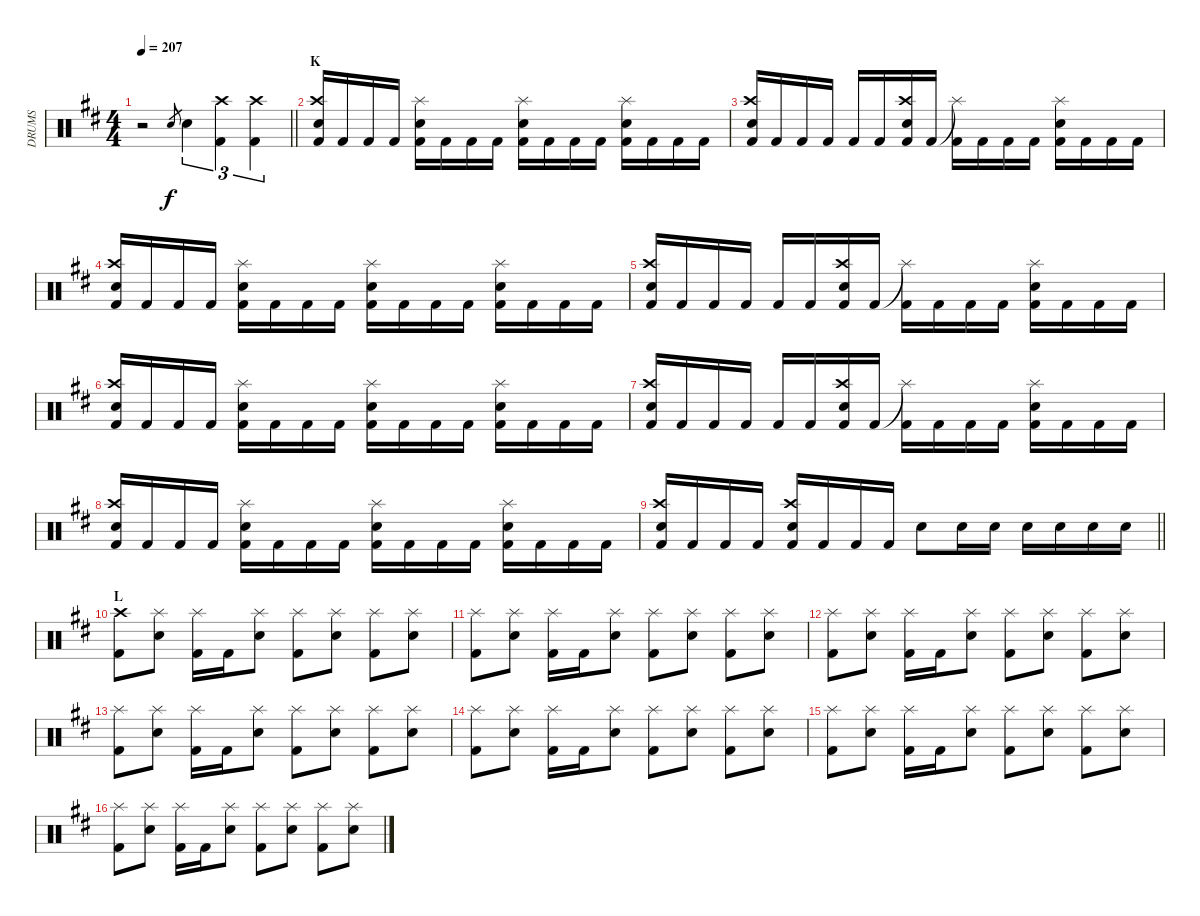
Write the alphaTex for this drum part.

\track ("DRUMS" "DRUMS") {instrument percussion}
\staff {score}
\articulation defaults
\ts (4 4)
\tempo 207
\clef neutral
\barLineRight lightlight
\ks d
r.2{dy f} "Snare (hit) 2".8{gr} "Snare (hit) 2".4{tu (3 2)} ("Crash high (hit)" "Kick (hit) 2").4{tu (3 2)} ("Crash high (hit)" "Kick (hit) 2").4{tu (3 2)} |
\section ("" "K")
("Crash high (hit)" "Snare (hit) 2" "Kick (hit) 2").16 "Kick (hit) 2".16 "Kick (hit) 2".16 "Kick (hit) 2".16 ("Splash (hit)" "Snare (hit) 2" "Kick (hit) 2").16 "Kick (hit) 2".16 "Kick (hit) 2".16 "Kick (hit) 2".16 ("Splash (hit)" "Snare (hit) 2" "Kick (hit) 2").16 "Kick (hit) 2".16 "Kick (hit) 2".16 "Kick (hit) 2".16 ("Splash (hit)" "Snare (hit) 2" "Kick (hit) 2").16 "Kick (hit) 2".16 "Kick (hit) 2".16 "Kick (hit) 2".16 |
("Crash high (hit)" "Snare (hit) 2" "Kick (hit) 2").16 "Kick (hit) 2".16 "Kick (hit) 2".16 "Kick (hit) 2".16 "Kick (hit) 2".16 "Kick (hit) 2".16 ("Crash high (hit)" "Snare (hit) 2" "Kick (hit) 2").16 "Kick (hit) 2".16 ("Splash (hit)"{t} "Kick (hit) 2").16 "Kick (hit) 2".16 "Kick (hit) 2".16 "Kick (hit) 2".16 ("Splash (hit)" "Snare (hit) 2" "Kick (hit) 2").16 "Kick (hit) 2".16 "Kick (hit) 2".16 "Kick (hit) 2".16 |
("Crash high (hit)" "Snare (hit) 2" "Kick (hit) 2").16 "Kick (hit) 2".16 "Kick (hit) 2".16 "Kick (hit) 2".16 ("Splash (hit)" "Snare (hit) 2" "Kick (hit) 2").16 "Kick (hit) 2".16 "Kick (hit) 2".16 "Kick (hit) 2".16 ("Splash (hit)" "Snare (hit) 2" "Kick (hit) 2").16 "Kick (hit) 2".16 "Kick (hit) 2".16 "Kick (hit) 2".16 ("Splash (hit)" "Snare (hit) 2" "Kick (hit) 2").16 "Kick (hit) 2".16 "Kick (hit) 2".16 "Kick (hit) 2".16 |
("Crash high (hit)" "Snare (hit) 2" "Kick (hit) 2").16 "Kick (hit) 2".16 "Kick (hit) 2".16 "Kick (hit) 2".16 "Kick (hit) 2".16 "Kick (hit) 2".16 ("Crash high (hit)" "Snare (hit) 2" "Kick (hit) 2").16 "Kick (hit) 2".16 ("Splash (hit)"{t} "Kick (hit) 2").16 "Kick (hit) 2".16 "Kick (hit) 2".16 "Kick (hit) 2".16 ("Splash (hit)" "Snare (hit) 2" "Kick (hit) 2").16 "Kick (hit) 2".16 "Kick (hit) 2".16 "Kick (hit) 2".16 |
("Crash high (hit)" "Snare (hit) 2" "Kick (hit) 2").16 "Kick (hit) 2".16 "Kick (hit) 2".16 "Kick (hit) 2".16 ("Splash (hit)" "Snare (hit) 2" "Kick (hit) 2").16 "Kick (hit) 2".16 "Kick (hit) 2".16 "Kick (hit) 2".16 ("Splash (hit)" "Snare (hit) 2" "Kick (hit) 2").16 "Kick (hit) 2".16 "Kick (hit) 2".16 "Kick (hit) 2".16 ("Splash (hit)" "Snare (hit) 2" "Kick (hit) 2").16 "Kick (hit) 2".16 "Kick (hit) 2".16 "Kick (hit) 2".16 |
("Crash high (hit)" "Snare (hit) 2" "Kick (hit) 2").16 "Kick (hit) 2".16 "Kick (hit) 2".16 "Kick (hit) 2".16 "Kick (hit) 2".16 "Kick (hit) 2".16 ("Crash high (hit)" "Snare (hit) 2" "Kick (hit) 2").16 "Kick (hit) 2".16 ("Splash (hit)"{t} "Kick (hit) 2").16 "Kick (hit) 2".16 "Kick (hit) 2".16 "Kick (hit) 2".16 ("Splash (hit)" "Snare (hit) 2" "Kick (hit) 2").16 "Kick (hit) 2".16 "Kick (hit) 2".16 "Kick (hit) 2".16 |
("Crash high (hit)" "Snare (hit) 2" "Kick (hit) 2").16 "Kick (hit) 2".16 "Kick (hit) 2".16 "Kick (hit) 2".16 ("Splash (hit)" "Snare (hit) 2" "Kick (hit) 2").16 "Kick (hit) 2".16 "Kick (hit) 2".16 "Kick (hit) 2".16 ("Splash (hit)" "Snare (hit) 2" "Kick (hit) 2").16 "Kick (hit) 2".16 "Kick (hit) 2".16 "Kick (hit) 2".16 ("Splash (hit)" "Snare (hit) 2" "Kick (hit) 2").16 "Kick (hit) 2".16 "Kick (hit) 2".16 "Kick (hit) 2".16 |
\barLineRight lightlight
("Crash high (hit)" "Snare (hit) 2" "Kick (hit) 2").16 "Kick (hit) 2".16 "Kick (hit) 2".16 "Kick (hit) 2".16 ("Crash high (hit)" "Snare (hit) 2" "Kick (hit) 2").16 "Kick (hit) 2".16 "Kick (hit) 2".16 "Kick (hit) 2".16 "Snare (hit) 2".8 "Snare (hit) 2".16 "Snare (hit) 2".16 "Snare (hit) 2".16 "Snare (hit) 2".16 "Snare (hit) 2".16 "Snare (hit) 2".16 |
\section ("" "L")
("Crash high (hit)" "Kick (hit) 2").8 ("Splash (hit)" "Snare (hit) 2").8 ("Splash (hit)" "Kick (hit) 2").16 "Kick (hit) 2".16 ("Splash (hit)" "Snare (hit) 2").8 ("Splash (hit)" "Kick (hit) 2").8 ("Splash (hit)" "Snare (hit) 2").8 ("Splash (hit)" "Kick (hit) 2").8 ("Splash (hit)" "Snare (hit) 2").8 |
("Splash (hit)" "Kick (hit) 2").8 ("Splash (hit)" "Snare (hit) 2").8 ("Splash (hit)" "Kick (hit) 2").16 "Kick (hit) 2".16 ("Splash (hit)" "Snare (hit) 2").8 ("Splash (hit)" "Kick (hit) 2").8 ("Splash (hit)" "Snare (hit) 2").8 ("Splash (hit)" "Kick (hit) 2").8 ("Splash (hit)" "Snare (hit) 2").8 |
("Splash (hit)" "Kick (hit) 2").8 ("Splash (hit)" "Snare (hit) 2").8 ("Splash (hit)" "Kick (hit) 2").16 "Kick (hit) 2".16 ("Splash (hit)" "Snare (hit) 2").8 ("Splash (hit)" "Kick (hit) 2").8 ("Splash (hit)" "Snare (hit) 2").8 ("Splash (hit)" "Kick (hit) 2").8 ("Splash (hit)" "Snare (hit) 2").8 |
("Splash (hit)" "Kick (hit) 2").8 ("Splash (hit)" "Snare (hit) 2").8 ("Splash (hit)" "Kick (hit) 2").16 "Kick (hit) 2".16 ("Splash (hit)" "Snare (hit) 2").8 ("Splash (hit)" "Kick (hit) 2").8 ("Splash (hit)" "Snare (hit) 2").8 ("Splash (hit)" "Kick (hit) 2").8 ("Splash (hit)" "Snare (hit) 2").8 |
("Splash (hit)" "Kick (hit) 2").8 ("Splash (hit)" "Snare (hit) 2").8 ("Splash (hit)" "Kick (hit) 2").16 "Kick (hit) 2".16 ("Splash (hit)" "Snare (hit) 2").8 ("Splash (hit)" "Kick (hit) 2").8 ("Splash (hit)" "Snare (hit) 2").8 ("Splash (hit)" "Kick (hit) 2").8 ("Splash (hit)" "Snare (hit) 2").8 |
("Splash (hit)" "Kick (hit) 2").8 ("Splash (hit)" "Snare (hit) 2").8 ("Splash (hit)" "Kick (hit) 2").16 "Kick (hit) 2".16 ("Splash (hit)" "Snare (hit) 2").8 ("Splash (hit)" "Kick (hit) 2").8 ("Splash (hit)" "Snare (hit) 2").8 ("Splash (hit)" "Kick (hit) 2").8 ("Splash (hit)" "Snare (hit) 2").8 |
("Splash (hit)" "Kick (hit) 2").8 ("Splash (hit)" "Snare (hit) 2").8 ("Splash (hit)" "Kick (hit) 2").16 "Kick (hit) 2".16 ("Splash (hit)" "Snare (hit) 2").8 ("Splash (hit)" "Kick (hit) 2").8 ("Splash (hit)" "Snare (hit) 2").8 ("Splash (hit)" "Kick (hit) 2").8 ("Splash (hit)" "Snare (hit) 2").8
